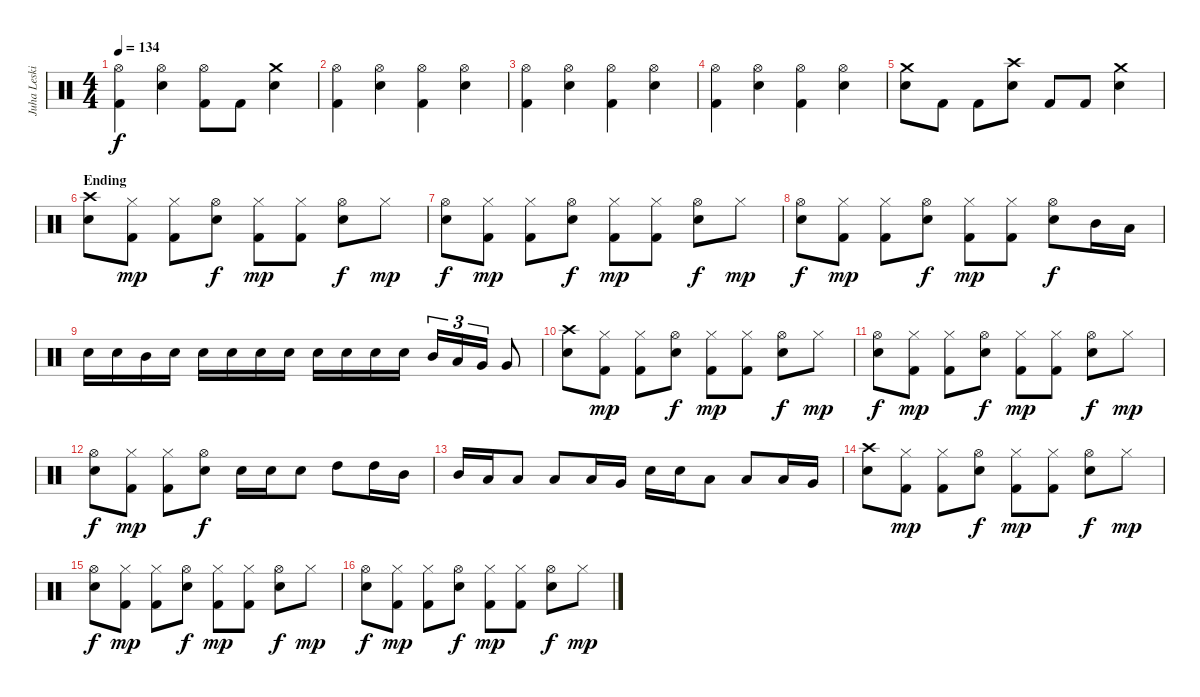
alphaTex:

\track ("Juha Leskinen - Drums" "Juha Leski") {instrument percussion}
\staff {score}
\articulation defaults
\ts (4 4)
\tempo 134
\clef neutral
\ks c
("Hi-Hat (open)" "Kick (hit) 2").4{dy f} ("Hi-Hat (open)" "Electric Snare (hit)").4 ("Hi-Hat (open)" "Kick (hit) 2").8 "Kick (hit) 2".8 ("Crash medium (hit)" "Electric Snare (hit)").4 |
("Hi-Hat (open)" "Kick (hit) 2").4 ("Hi-Hat (open)" "Electric Snare (hit)").4 ("Hi-Hat (open)" "Kick (hit) 2").4 ("Hi-Hat (open)" "Electric Snare (hit)").4 |
("Hi-Hat (open)" "Kick (hit) 2").4 ("Hi-Hat (open)" "Electric Snare (hit)").4 ("Hi-Hat (open)" "Kick (hit) 2").4 ("Hi-Hat (open)" "Electric Snare (hit)").4 |
("Hi-Hat (open)" "Kick (hit) 2").4 ("Hi-Hat (open)" "Electric Snare (hit)").4 ("Hi-Hat (open)" "Kick (hit) 2").4 ("Hi-Hat (open)" "Electric Snare (hit)").4 |
("Crash medium (hit)" "Electric Snare (hit)").8 "Kick (hit) 2".8 "Kick (hit) 2".8 ("Crash high (hit)" "Electric Snare (hit)").8 "Kick (hit) 2".8 "Kick (hit) 2".8 ("Crash medium (hit)" "Electric Snare (hit)").4 |
\section ("" "Ending")
("Crash high (hit)" "Electric Snare (hit)").8 ("Hi-Hat (closed)" "Kick (hit) 2").8{dy mp} ("Hi-Hat (closed)" "Kick (hit) 2").8 ("Hi-Hat (open)" "Electric Snare (hit)").8{dy f} ("Hi-Hat (closed)" "Kick (hit) 2").8{dy mp} ("Hi-Hat (closed)" "Kick (hit) 2").8 ("Hi-Hat (open)" "Electric Snare (hit)").8{dy f} "Hi-Hat (closed)".8{dy mp} |
("Hi-Hat (open)" "Electric Snare (hit)").8{dy f} ("Hi-Hat (closed)" "Kick (hit) 2").8{dy mp} ("Hi-Hat (closed)" "Kick (hit) 2").8 ("Hi-Hat (open)" "Electric Snare (hit)").8{dy f} ("Hi-Hat (closed)" "Kick (hit) 2").8{dy mp} ("Hi-Hat (closed)" "Kick (hit) 2").8 ("Hi-Hat (open)" "Electric Snare (hit)").8{dy f} "Hi-Hat (closed)".8{dy mp} |
("Hi-Hat (open)" "Electric Snare (hit)").8{dy f} ("Hi-Hat (closed)" "Kick (hit) 2").8{dy mp} ("Hi-Hat (closed)" "Kick (hit) 2").8 ("Hi-Hat (open)" "Electric Snare (hit)").8{dy f} ("Hi-Hat (closed)" "Kick (hit) 2").8{dy mp} ("Hi-Hat (closed)" "Kick (hit) 2").8 ("Hi-Hat (open)" "Electric Snare (hit)").8{dy f} "Mid Tom (hit)".16 "Low Tom (hit)".16 |
"Electric Snare (hit)".16 "Electric Snare (hit)".16 "Mid Tom (hit)".16 "Electric Snare (hit)".16 "Electric Snare (hit)".16 "Electric Snare (hit)".16 "Electric Snare (hit)".16 "Electric Snare (hit)".16 "Electric Snare (hit)".16 "Electric Snare (hit)".16 "Electric Snare (hit)".16 "Electric Snare (hit)".16 "Mid Tom (hit)".16{tu (3 2)} "Low Tom (hit)".16{tu (3 2)} "Very Low Tom (hit)".16{tu (3 2)} "Very Low Tom (hit)".8 |
("Crash high (hit)" "Electric Snare (hit)").8 ("Hi-Hat (closed)" "Kick (hit) 2").8{dy mp} ("Hi-Hat (closed)" "Kick (hit) 2").8 ("Hi-Hat (open)" "Electric Snare (hit)").8{dy f} ("Hi-Hat (closed)" "Kick (hit) 2").8{dy mp} ("Hi-Hat (closed)" "Kick (hit) 2").8 ("Hi-Hat (open)" "Electric Snare (hit)").8{dy f} "Hi-Hat (closed)".8{dy mp} |
("Hi-Hat (open)" "Electric Snare (hit)").8{dy f} ("Hi-Hat (closed)" "Kick (hit) 2").8{dy mp} ("Hi-Hat (closed)" "Kick (hit) 2").8 ("Hi-Hat (open)" "Electric Snare (hit)").8{dy f} ("Hi-Hat (closed)" "Kick (hit) 2").8{dy mp} ("Hi-Hat (closed)" "Kick (hit) 2").8 ("Hi-Hat (open)" "Electric Snare (hit)").8{dy f} "Hi-Hat (closed)".8{dy mp} |
("Hi-Hat (open)" "Electric Snare (hit)").8{dy f} ("Hi-Hat (closed)" "Kick (hit) 2").8{dy mp} ("Hi-Hat (closed)" "Kick (hit) 2").8 ("Hi-Hat (open)" "Electric Snare (hit)").8{dy f} "Electric Snare (hit)".16 "Electric Snare (hit)".16 "Electric Snare (hit)".8 "High Tom (hit)".8 "High Tom (hit)".16 "Mid Tom (hit)".16 |
"Mid Tom (hit)".16 "Low Tom (hit)".16 "Low Tom (hit)".8 "Low Tom (hit)".8 "Low Tom (hit)".16 "Very Low Tom (hit)".16 "Electric Snare (hit)".16 "Electric Snare (hit)".16 "Low Tom (hit)".8 "Low Tom (hit)".8 "Low Tom (hit)".16 "Very Low Tom (hit)".16 |
("Crash high (hit)" "Electric Snare (hit)").8 ("Hi-Hat (closed)" "Kick (hit) 2").8{dy mp} ("Hi-Hat (closed)" "Kick (hit) 2").8 ("Hi-Hat (open)" "Electric Snare (hit)").8{dy f} ("Hi-Hat (closed)" "Kick (hit) 2").8{dy mp} ("Hi-Hat (closed)" "Kick (hit) 2").8 ("Hi-Hat (open)" "Electric Snare (hit)").8{dy f} "Hi-Hat (closed)".8{dy mp} |
("Hi-Hat (open)" "Electric Snare (hit)").8{dy f} ("Hi-Hat (closed)" "Kick (hit) 2").8{dy mp} ("Hi-Hat (closed)" "Kick (hit) 2").8 ("Hi-Hat (open)" "Electric Snare (hit)").8{dy f} ("Hi-Hat (closed)" "Kick (hit) 2").8{dy mp} ("Hi-Hat (closed)" "Kick (hit) 2").8 ("Hi-Hat (open)" "Electric Snare (hit)").8{dy f} "Hi-Hat (closed)".8{dy mp} |
("Hi-Hat (open)" "Electric Snare (hit)").8{dy f} ("Hi-Hat (closed)" "Kick (hit) 2").8{dy mp} ("Hi-Hat (closed)" "Kick (hit) 2").8 ("Hi-Hat (open)" "Electric Snare (hit)").8{dy f} ("Hi-Hat (closed)" "Kick (hit) 2").8{dy mp} ("Hi-Hat (closed)" "Kick (hit) 2").8 ("Hi-Hat (open)" "Electric Snare (hit)").8{dy f} "Hi-Hat (closed)".8{dy mp}
